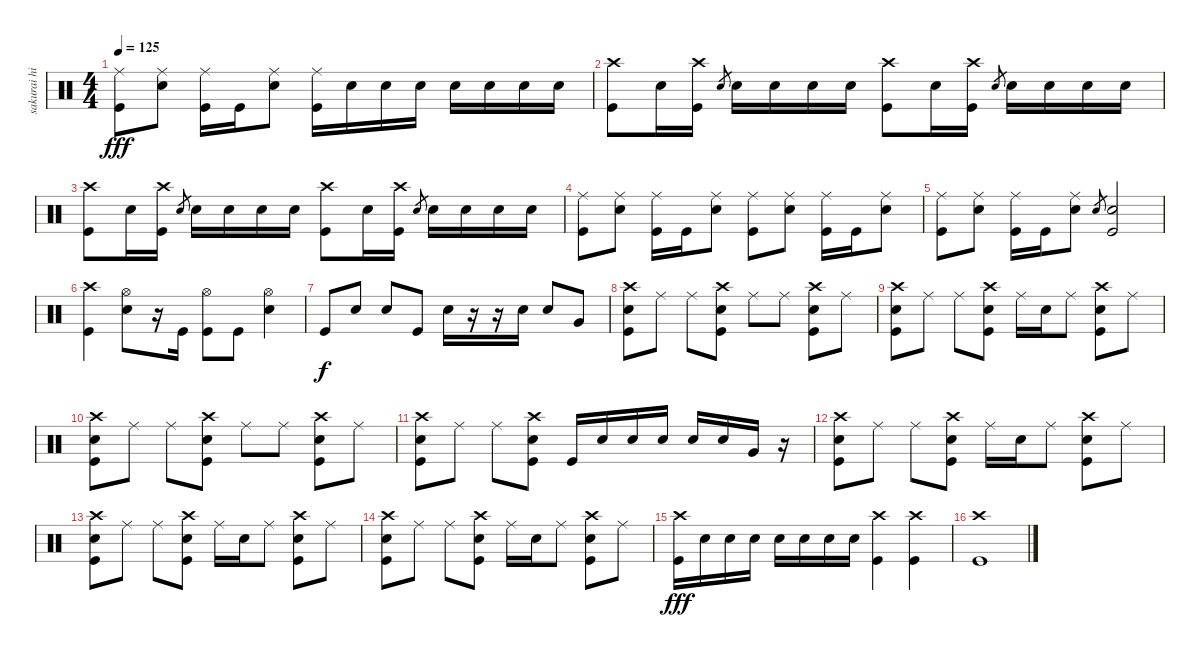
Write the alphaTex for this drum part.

\track ("sakurai hiroshi" "sakurai hi") {instrument percussion}
\staff {score}
\articulation defaults
\ts (4 4)
\tempo 125
\clef neutral
\ks c
("Kick (hit)" "Ride (middle)").8{dy fff} ("Ride (middle)" "Snare (hit) 2").8 ("Ride (middle)" "Kick (hit)").16 "Kick (hit)".16 ("Ride (middle)" "Snare (hit) 2").8 ("Ride (middle)" "Kick (hit)").16 "Snare (hit) 2".16 "Snare (hit) 2".16 "Snare (hit) 2".16 "Snare (hit) 2".16 "Snare (hit) 2".16 "Snare (hit) 2".16 "Snare (hit) 2".16 |
("Kick (hit)" "Crash high (hit)").8 "Snare (hit) 2".16 ("Kick (hit)" "Crash high (hit)").16 "Snare (hit) 2".8{gr} "Snare (hit) 2".16 "Snare (hit) 2".16 "Snare (hit) 2".16 "Snare (hit) 2".16 ("Kick (hit)" "Crash high (hit)").8 "Snare (hit) 2".16 ("Kick (hit)" "Crash high (hit)").16 "Snare (hit) 2".8{gr} "Snare (hit) 2".16 "Snare (hit) 2".16 "Snare (hit) 2".16 "Snare (hit) 2".16 |
("Kick (hit)" "Crash high (hit)").8 "Snare (hit) 2".16 ("Kick (hit)" "Crash high (hit)").16 "Snare (hit) 2".8{gr} "Snare (hit) 2".16 "Snare (hit) 2".16 "Snare (hit) 2".16 "Snare (hit) 2".16 ("Kick (hit)" "Crash high (hit)").8 "Snare (hit) 2".16 ("Kick (hit)" "Crash high (hit)").16 "Snare (hit) 2".8{gr} "Snare (hit) 2".16 "Snare (hit) 2".16 "Snare (hit) 2".16 "Snare (hit) 2".16 |
("Kick (hit)" "Ride (middle)").8 ("Ride (middle)" "Snare (hit) 2").8 ("Ride (middle)" "Kick (hit)").16 "Kick (hit)".16 ("Ride (middle)" "Snare (hit) 2").8 ("Ride (middle)" "Kick (hit)").8 ("Ride (middle)" "Snare (hit) 2").8 ("Ride (middle)" "Kick (hit)").16 "Kick (hit)".16 ("Ride (middle)" "Snare (hit) 2").8 |
("Kick (hit)" "Ride (middle)").8 ("Ride (middle)" "Snare (hit) 2").8 ("Ride (middle)" "Kick (hit)").16 "Kick (hit)".16 ("Ride (middle)" "Snare (hit) 2").8 "Snare (hit) 2".8{gr} ("Snare (hit) 2" "Kick (hit)").2 |
("Kick (hit)" "Crash high (hit)").4 ("Snare (hit) 2" "Hi-Hat (open)").8 r.16 "Kick (hit)".16 ("Kick (hit)" "Hi-Hat (open)").8 "Kick (hit)".8 ("Snare (hit) 2" "Hi-Hat (open)").4 |
"Kick (hit)".8{dy f} "Snare (hit) 2".8 "Snare (hit) 2".8 "Kick (hit)".8 "Snare (hit) 2".16 r.16 r.16 "Snare (hit) 2".16 "Snare (hit) 2".8 "Very Low Tom (hit)".8 |
("Snare (hit) 2" "Crash high (hit)" "Kick (hit)").8 "Ride (middle)".8 "Ride (middle)".8 ("Snare (hit) 2" "Crash high (hit)" "Kick (hit)").8 "Ride (middle)".8 "Ride (middle)".8 ("Crash high (hit)" "Snare (hit) 2" "Kick (hit)").8 "Ride (middle)".8 |
("Snare (hit) 2" "Crash high (hit)" "Kick (hit)").8 "Ride (middle)".8 "Ride (middle)".8 ("Snare (hit) 2" "Kick (hit)" "Crash high (hit)").8 "Ride (middle)".16 "Snare (hit) 2".16 "Ride (middle)".8 ("Crash high (hit)" "Snare (hit) 2" "Kick (hit)").8 "Ride (middle)".8 |
("Snare (hit) 2" "Crash high (hit)" "Kick (hit)").8 "Ride (middle)".8 "Ride (middle)".8 ("Snare (hit) 2" "Crash high (hit)" "Kick (hit)").8 "Ride (middle)".8 "Ride (middle)".8 ("Crash high (hit)" "Snare (hit) 2" "Kick (hit)").8 "Ride (middle)".8 |
("Snare (hit) 2" "Crash high (hit)" "Kick (hit)").8 "Ride (middle)".8 "Ride (middle)".8 ("Snare (hit) 2" "Kick (hit)" "Crash high (hit)").8 "Kick (hit)".16 "Snare (hit) 2".16 "Snare (hit) 2".16 "Snare (hit) 2".16 "Snare (hit) 2".16 "Snare (hit) 2".16 "Very Low Tom (hit)".16 r.16 |
("Snare (hit) 2" "Crash high (hit)" "Kick (hit)").8 "Ride (middle)".8 "Ride (middle)".8 ("Snare (hit) 2" "Crash high (hit)" "Kick (hit)").8 "Ride (middle)".16 "Snare (hit) 2".16 "Ride (middle)".8 ("Crash high (hit)" "Snare (hit) 2" "Kick (hit)").8 "Ride (middle)".8 |
("Snare (hit) 2" "Crash high (hit)" "Kick (hit)").8 "Ride (middle)".8 "Ride (middle)".8 ("Snare (hit) 2" "Kick (hit)" "Crash high (hit)").8 "Ride (middle)".16 "Snare (hit) 2".16 "Ride (middle)".8 ("Crash high (hit)" "Snare (hit) 2" "Kick (hit)").8 "Ride (middle)".8 |
("Snare (hit) 2" "Crash high (hit)" "Kick (hit)").8 "Ride (middle)".8 "Ride (middle)".8 ("Snare (hit) 2" "Crash high (hit)" "Kick (hit)").8 "Ride (middle)".16 "Snare (hit) 2".16 "Ride (middle)".8 ("Crash high (hit)" "Snare (hit) 2" "Kick (hit)").8 "Ride (middle)".8 |
("Crash high (hit)" "Kick (hit)").16{dy fff} "Snare (hit) 2".16 "Snare (hit) 2".16 "Snare (hit) 2".16 "Snare (hit) 2".16 "Snare (hit) 2".16 "Snare (hit) 2".16 "Snare (hit) 2".16 ("Kick (hit)" "Crash high (hit)").4 ("Crash high (hit)" "Kick (hit)").4 |
("Crash high (hit)" "Kick (hit)").1
